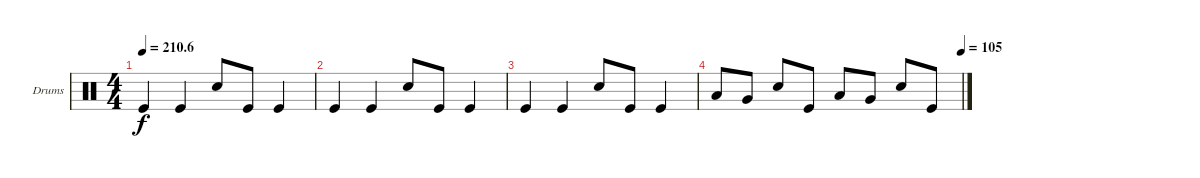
\defaultSystemsLayout 4
\bracketExtendMode groupsimilarinstruments
\firstSystemTrackNameOrientation horizontal
\otherSystemsTrackNameOrientation horizontal
\track ("Drumkit" "Drums") {instrument percussion}
\staff {score}
\articulation defaults
\ts (4 4)
\tempo
210.6
\accidentals auto
\clef neutral
\ottava regular
\simile none
\ks c "Kick (hit)".4{dy f} "Kick (hit)".4 "Snare (hit) 2".8 "Kick (hit)".8 "Kick (hit)".4
|
"Kick (hit)".4 "Kick (hit)".4 "Snare (hit) 2".8 "Kick (hit)".8 "Kick (hit)".4 |
"Kick (hit)".4 "Kick (hit)".4 "Snare (hit) 2".8 "Kick (hit)".8 "Kick (hit)".4 |
\tempo (105 1)
"Low Tom (hit)".8 "Very Low Tom (hit)".8 "Snare (hit) 2".8 "Kick (hit)".8 "Low Tom (hit)".8 "Very Low Tom (hit)".8 "Snare (hit) 2".8 "Kick (hit)".8
